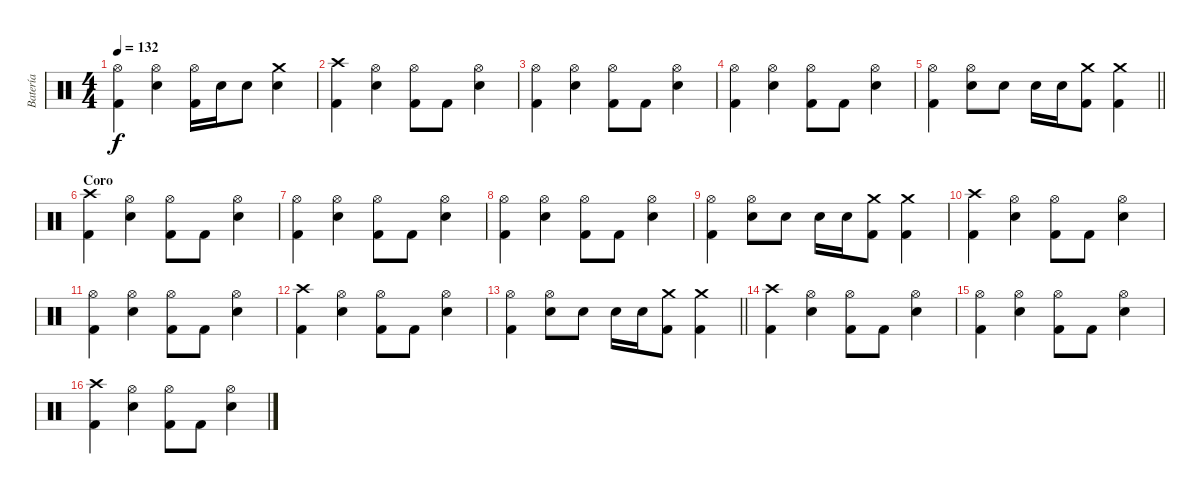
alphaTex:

\track ("Batería" "Batería") {instrument percussion}
\staff {score}
\articulation defaults
\ts (4 4)
\tempo 132
\clef neutral
\ks c
("Hi-Hat (open)" "Kick (hit) 2").4{dy f} ("Hi-Hat (open)" "Electric Snare (hit)").4 ("Hi-Hat (open)" "Kick (hit) 2").16 "Electric Snare (hit)".16 "Electric Snare (hit)".8 ("Electric Snare (hit)" "Crash medium (hit)").4 |
("Crash high (hit)" "Kick (hit) 2").4 ("Hi-Hat (open)" "Electric Snare (hit)").4 ("Kick (hit) 2" "Hi-Hat (open)").8 "Kick (hit) 2".8 ("Hi-Hat (open)" "Electric Snare (hit)").4 |
("Hi-Hat (open)" "Kick (hit) 2").4 ("Hi-Hat (open)" "Electric Snare (hit)").4 ("Kick (hit) 2" "Hi-Hat (open)").8 "Kick (hit) 2".8 ("Hi-Hat (open)" "Electric Snare (hit)").4 |
("Hi-Hat (open)" "Kick (hit) 2").4 ("Hi-Hat (open)" "Electric Snare (hit)").4 ("Kick (hit) 2" "Hi-Hat (open)").8 "Kick (hit) 2".8 ("Hi-Hat (open)" "Electric Snare (hit)").4 |
\barLineRight lightlight
("Hi-Hat (open)" "Kick (hit) 2").4 ("Hi-Hat (open)" "Electric Snare (hit)").8 "Electric Snare (hit)".8 "Electric Snare (hit)".16 "Electric Snare (hit)".16 ("Kick (hit) 2" "Crash medium (hit)").8 ("Kick (hit) 2" "Crash medium (hit)").4 |
\section ("" "Coro")
("Crash high (hit)" "Kick (hit) 2").4 ("Hi-Hat (open)" "Electric Snare (hit)").4 ("Kick (hit) 2" "Hi-Hat (open)").8 "Kick (hit) 2".8 ("Hi-Hat (open)" "Electric Snare (hit)").4 |
("Hi-Hat (open)" "Kick (hit) 2").4 ("Hi-Hat (open)" "Electric Snare (hit)").4 ("Kick (hit) 2" "Hi-Hat (open)").8 "Kick (hit) 2".8 ("Hi-Hat (open)" "Electric Snare (hit)").4 |
("Hi-Hat (open)" "Kick (hit) 2").4 ("Hi-Hat (open)" "Electric Snare (hit)").4 ("Kick (hit) 2" "Hi-Hat (open)").8 "Kick (hit) 2".8 ("Hi-Hat (open)" "Electric Snare (hit)").4 |
("Hi-Hat (open)" "Kick (hit) 2").4 ("Hi-Hat (open)" "Electric Snare (hit)").8 "Electric Snare (hit)".8 "Electric Snare (hit)".16 "Electric Snare (hit)".16 ("Kick (hit) 2" "Crash medium (hit)").8 ("Kick (hit) 2" "Crash medium (hit)").4 |
("Crash high (hit)" "Kick (hit) 2").4 ("Hi-Hat (open)" "Electric Snare (hit)").4 ("Kick (hit) 2" "Hi-Hat (open)").8 "Kick (hit) 2".8 ("Hi-Hat (open)" "Electric Snare (hit)").4 |
("Hi-Hat (open)" "Kick (hit) 2").4 ("Hi-Hat (open)" "Electric Snare (hit)").4 ("Kick (hit) 2" "Hi-Hat (open)").8 "Kick (hit) 2".8 ("Hi-Hat (open)" "Electric Snare (hit)").4 |
("Crash high (hit)" "Kick (hit) 2").4 ("Hi-Hat (open)" "Electric Snare (hit)").4 ("Kick (hit) 2" "Hi-Hat (open)").8 "Kick (hit) 2".8 ("Hi-Hat (open)" "Electric Snare (hit)").4 |
\barLineRight lightlight
("Hi-Hat (open)" "Kick (hit) 2").4 ("Hi-Hat (open)" "Electric Snare (hit)").8 "Electric Snare (hit)".8 "Electric Snare (hit)".16 "Electric Snare (hit)".16 ("Kick (hit) 2" "Crash medium (hit)").8 ("Kick (hit) 2" "Crash medium (hit)").4 |
("Crash high (hit)" "Kick (hit) 2").4 ("Hi-Hat (open)" "Electric Snare (hit)").4 ("Kick (hit) 2" "Hi-Hat (open)").8 "Kick (hit) 2".8 ("Hi-Hat (open)" "Electric Snare (hit)").4 |
("Hi-Hat (open)" "Kick (hit) 2").4 ("Hi-Hat (open)" "Electric Snare (hit)").4 ("Kick (hit) 2" "Hi-Hat (open)").8 "Kick (hit) 2".8 ("Hi-Hat (open)" "Electric Snare (hit)").4 |
("Crash high (hit)" "Kick (hit) 2").4 ("Hi-Hat (open)" "Electric Snare (hit)").4 ("Kick (hit) 2" "Hi-Hat (open)").8 "Kick (hit) 2".8 ("Hi-Hat (open)" "Electric Snare (hit)").4
